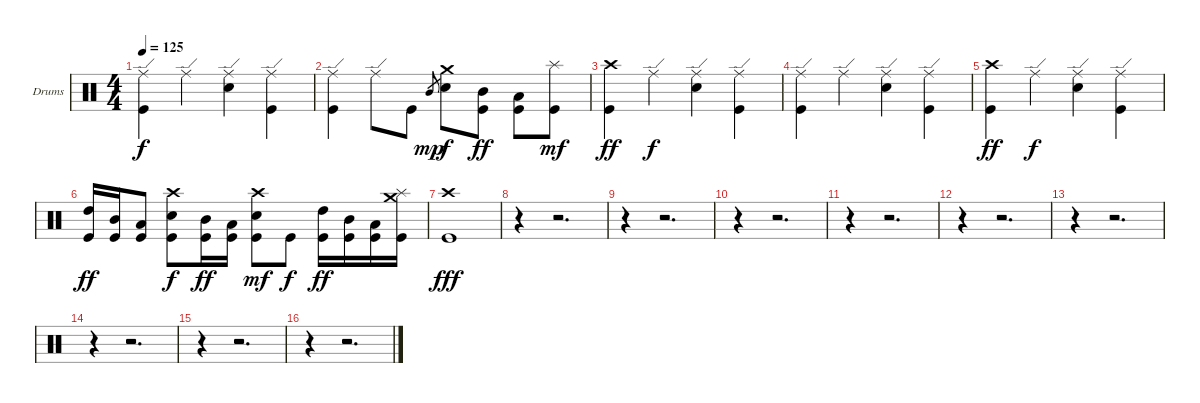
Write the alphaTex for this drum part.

\bracketExtendMode groupsimilarinstruments
\firstSystemTrackNameOrientation horizontal
\otherSystemsTrackNameOrientation horizontal
\track ("Барабаны" "Drums") {instrument percussion}
\staff {score}
\articulation defaults
\ts (4 4)
\tempo 125
\clef neutral
\ks c
("Ride (edge)" "Kick (hit)").4{dy f} "Ride (edge)".4 ("Ride (edge)" "Snare (hit) 2").4 ("Ride (edge)" "Kick (hit)").4 |
("Ride (edge)" "Kick (hit)").4 "Ride (edge)".8 "Kick (hit)".8 "Mid Tom (hit)".8{gr dy mp} ("Crash medium (hit)" "Snare (hit) 2").8{dy f} ("Mid Tom (hit)" "Kick (hit)").8{dy ff} ("Low Tom (hit)" "Kick (hit)").8 ("Kick (hit)" "Splash (hit)").8{dy mf} |
("Crash high (hit)" "Kick (hit)").4{dy ff} "Ride (edge)".4{dy f} ("Ride (edge)" "Snare (hit) 2").4 ("Ride (edge)" "Kick (hit)").4 |
("Ride (edge)" "Kick (hit)").4 "Ride (edge)".4 ("Ride (edge)" "Snare (hit) 2").4 ("Ride (edge)" "Kick (hit)").4 |
("Crash high (hit)" "Kick (hit)").4{dy ff} "Ride (edge)".4{dy f} ("Ride (edge)" "Snare (hit) 2").4 ("Ride (edge)" "Kick (hit)").4 |
("High Tom (hit)" "Kick (hit)").16{dy ff} ("Mid Tom (hit)" "Kick (hit)").16 ("Low Tom (hit)" "Kick (hit)").8 ("Crash high (hit)" "Snare (hit) 2" "Kick (hit)").8{dy f} ("Mid Tom (hit)" "Kick (hit)").16{dy ff} ("Low Tom (hit)" "Kick (hit)").16 ("Crash high (hit)" "Snare (hit) 2" "Kick (hit)").8{dy mf} "Kick (hit)".8{dy f} ("High Tom (hit)" "Kick (hit)").16{dy ff} ("Mid Tom (hit)" "Kick (hit)").16 ("Low Tom (hit)" "Kick (hit)").16 ("Splash (hit)" "Crash medium (hit)" "Kick (hit)").16 |
("Crash high (hit)" "Kick (hit)").1{dy fff} |
r.4 r.2{d} |
r.4 r.2{d} |
r.4 r.2{d} |
r.4 r.2{d} |
r.4 r.2{d} |
r.4 r.2{d} |
r.4 r.2{d} |
r.4 r.2{d} |
r.4 r.2{d}
